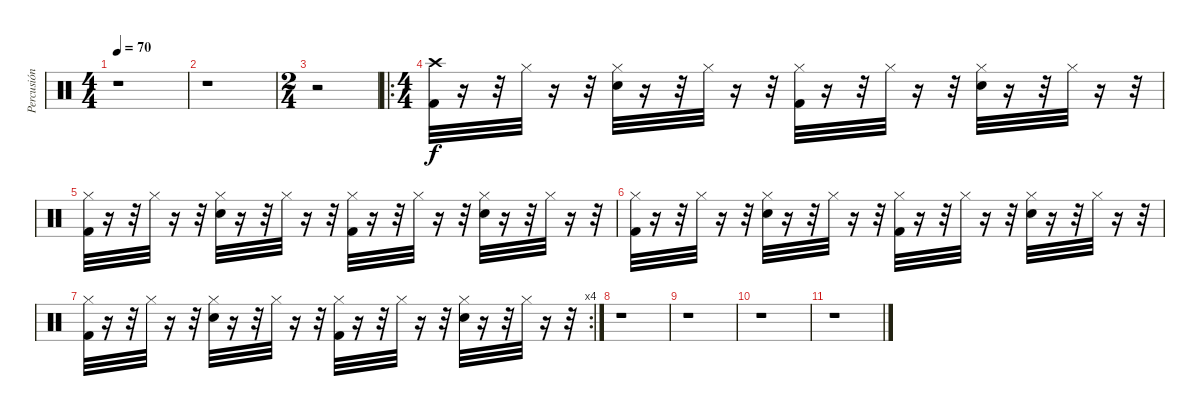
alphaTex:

\track ("Percusión" "Percusión") {instrument percussion}
\staff {score}
\articulation defaults
\ts (4 4)
\tempo 70
\clef neutral
\ks c
r.1{dy f} |
r.1 |
\ts (2 4)
r.2 |
\ro
\ts (4 4)
("Kick (hit) 2" "Crash high (hit)").32 r.16 r.32 "Hi-Hat (closed)".32 r.16 r.32 ("Snare (hit) 2" "Hi-Hat (closed)").32 r.16 r.32 "Hi-Hat (closed)".32 r.16 r.32 ("Hi-Hat (closed)" "Kick (hit) 2").32 r.16 r.32 "Hi-Hat (closed)".32 r.16 r.32 ("Snare (hit) 2" "Hi-Hat (closed)").32 r.16 r.32 "Hi-Hat (closed)".32 r.16 r.32 |
("Hi-Hat (closed)" "Kick (hit) 2").32 r.16 r.32 "Hi-Hat (closed)".32 r.16 r.32 ("Snare (hit) 2" "Hi-Hat (closed)").32 r.16 r.32 "Hi-Hat (closed)".32 r.16 r.32 ("Hi-Hat (closed)" "Kick (hit) 2").32 r.16 r.32 "Hi-Hat (closed)".32 r.16 r.32 ("Snare (hit) 2" "Hi-Hat (closed)").32 r.16 r.32 "Hi-Hat (closed)".32 r.16 r.32 |
("Hi-Hat (closed)" "Kick (hit) 2").32 r.16 r.32 "Hi-Hat (closed)".32 r.16 r.32 ("Snare (hit) 2" "Hi-Hat (closed)").32 r.16 r.32 "Hi-Hat (closed)".32 r.16 r.32 ("Hi-Hat (closed)" "Kick (hit) 2").32 r.16 r.32 "Hi-Hat (closed)".32 r.16 r.32 ("Snare (hit) 2" "Hi-Hat (closed)").32 r.16 r.32 "Hi-Hat (closed)".32 r.16 r.32 |
\rc 4
("Hi-Hat (closed)" "Kick (hit) 2").32 r.16 r.32 "Hi-Hat (closed)".32 r.16 r.32 ("Snare (hit) 2" "Hi-Hat (closed)").32 r.16 r.32 "Hi-Hat (closed)".32 r.16 r.32 ("Hi-Hat (closed)" "Kick (hit) 2").32 r.16 r.32 "Hi-Hat (closed)".32 r.16 r.32 ("Snare (hit) 2" "Hi-Hat (closed)").32 r.16 r.32 "Hi-Hat (closed)".32 r.16 r.32 |
r.1 |
r.1 |
r.1 |
r.1
